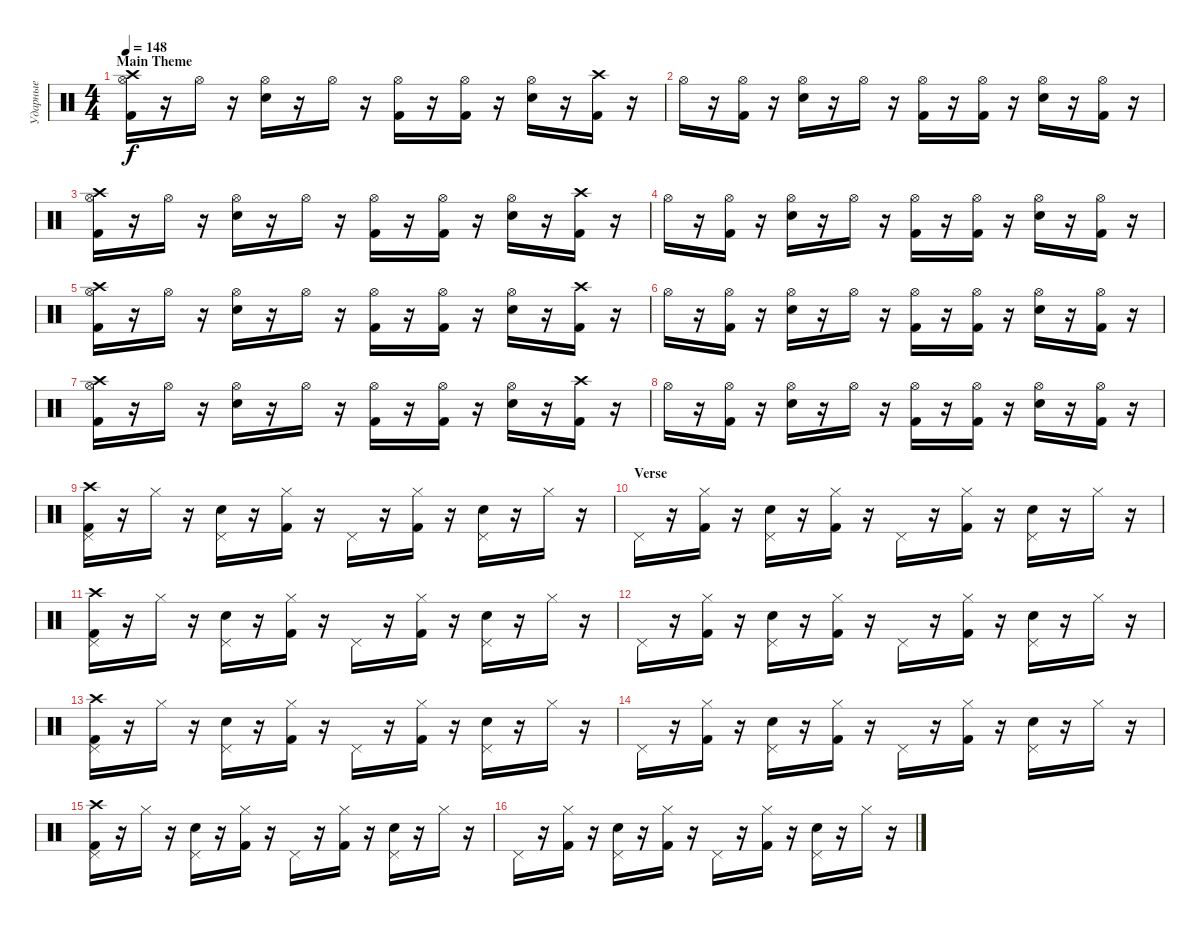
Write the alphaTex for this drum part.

\track ("Ударные" "Ударные") {instrument percussion}
\staff {score}
\articulation defaults
\ts (4 4)
\section ("" "Main Theme")
\tempo 148
\clef neutral
\ks c
("Crash high (hit)" "Hi-Hat (open)" "Kick (hit) 2").16{dy f} r.16 "Hi-Hat (open)".16 r.16 ("Hi-Hat (open)" "Electric Snare (hit)").16 r.16 "Hi-Hat (open)".16 r.16 ("Hi-Hat (open)" "Kick (hit) 2").16 r.16 ("Hi-Hat (open)" "Kick (hit) 2").16 r.16 ("Hi-Hat (open)" "Electric Snare (hit)").16 r.16 ("Crash high (hit)" "Kick (hit) 2").16 r.16 |
"Hi-Hat (open)".16 r.16 ("Hi-Hat (open)" "Kick (hit) 2").16 r.16 ("Hi-Hat (open)" "Electric Snare (hit)").16 r.16 "Hi-Hat (open)".16 r.16 ("Hi-Hat (open)" "Kick (hit) 2").16 r.16 ("Hi-Hat (open)" "Kick (hit) 2").16 r.16 ("Hi-Hat (open)" "Electric Snare (hit)").16 r.16 ("Hi-Hat (open)" "Kick (hit) 2").16 r.16 |
("Crash high (hit)" "Hi-Hat (open)" "Kick (hit) 2").16 r.16 "Hi-Hat (open)".16 r.16 ("Hi-Hat (open)" "Electric Snare (hit)").16 r.16 "Hi-Hat (open)".16 r.16 ("Hi-Hat (open)" "Kick (hit) 2").16 r.16 ("Hi-Hat (open)" "Kick (hit) 2").16 r.16 ("Hi-Hat (open)" "Electric Snare (hit)").16 r.16 ("Crash high (hit)" "Kick (hit) 2").16 r.16 |
"Hi-Hat (open)".16 r.16 ("Hi-Hat (open)" "Kick (hit) 2").16 r.16 ("Hi-Hat (open)" "Electric Snare (hit)").16 r.16 "Hi-Hat (open)".16 r.16 ("Hi-Hat (open)" "Kick (hit) 2").16 r.16 ("Hi-Hat (open)" "Kick (hit) 2").16 r.16 ("Hi-Hat (open)" "Electric Snare (hit)").16 r.16 ("Hi-Hat (open)" "Kick (hit) 2").16 r.16 |
("Crash high (hit)" "Hi-Hat (open)" "Kick (hit) 2").16 r.16 "Hi-Hat (open)".16 r.16 ("Hi-Hat (open)" "Electric Snare (hit)").16 r.16 "Hi-Hat (open)".16 r.16 ("Hi-Hat (open)" "Kick (hit) 2").16 r.16 ("Hi-Hat (open)" "Kick (hit) 2").16 r.16 ("Hi-Hat (open)" "Electric Snare (hit)").16 r.16 ("Crash high (hit)" "Kick (hit) 2").16 r.16 |
"Hi-Hat (open)".16 r.16 ("Hi-Hat (open)" "Kick (hit) 2").16 r.16 ("Hi-Hat (open)" "Electric Snare (hit)").16 r.16 "Hi-Hat (open)".16 r.16 ("Hi-Hat (open)" "Kick (hit) 2").16 r.16 ("Hi-Hat (open)" "Kick (hit) 2").16 r.16 ("Hi-Hat (open)" "Electric Snare (hit)").16 r.16 ("Hi-Hat (open)" "Kick (hit) 2").16 r.16 |
("Crash high (hit)" "Hi-Hat (open)" "Kick (hit) 2").16 r.16 "Hi-Hat (open)".16 r.16 ("Hi-Hat (open)" "Electric Snare (hit)").16 r.16 "Hi-Hat (open)".16 r.16 ("Hi-Hat (open)" "Kick (hit) 2").16 r.16 ("Hi-Hat (open)" "Kick (hit) 2").16 r.16 ("Hi-Hat (open)" "Electric Snare (hit)").16 r.16 ("Crash high (hit)" "Kick (hit) 2").16 r.16 |
"Hi-Hat (open)".16 r.16 ("Hi-Hat (open)" "Kick (hit) 2").16 r.16 ("Hi-Hat (open)" "Electric Snare (hit)").16 r.16 "Hi-Hat (open)".16 r.16 ("Hi-Hat (open)" "Kick (hit) 2").16 r.16 ("Hi-Hat (open)" "Kick (hit) 2").16 r.16 ("Hi-Hat (open)" "Electric Snare (hit)").16 r.16 ("Hi-Hat (open)" "Kick (hit) 2").16 r.16 |
("Crash high (hit)" "Pedal Hi-Hat (hit)" "Kick (hit) 2").16 r.16 "Hi-Hat (closed)".16 r.16 ("Pedal Hi-Hat (hit)" "Electric Snare (hit)").16 r.16 ("Hi-Hat (closed)" "Kick (hit) 2").16 r.16 "Pedal Hi-Hat (hit)".16 r.16 ("Hi-Hat (closed)" "Kick (hit) 2").16 r.16 ("Pedal Hi-Hat (hit)" "Electric Snare (hit)").16 r.16 "Hi-Hat (closed)".16 r.16 |
\section ("" "Verse")
"Pedal Hi-Hat (hit)".16 r.16 ("Hi-Hat (closed)" "Kick (hit) 2").16 r.16 ("Pedal Hi-Hat (hit)" "Electric Snare (hit)").16 r.16 ("Hi-Hat (closed)" "Kick (hit) 2").16 r.16 "Pedal Hi-Hat (hit)".16 r.16 ("Hi-Hat (closed)" "Kick (hit) 2").16 r.16 ("Pedal Hi-Hat (hit)" "Electric Snare (hit)").16 r.16 "Hi-Hat (closed)".16 r.16 |
("Crash high (hit)" "Pedal Hi-Hat (hit)" "Kick (hit) 2").16 r.16 "Hi-Hat (closed)".16 r.16 ("Pedal Hi-Hat (hit)" "Electric Snare (hit)").16 r.16 ("Hi-Hat (closed)" "Kick (hit) 2").16 r.16 "Pedal Hi-Hat (hit)".16 r.16 ("Hi-Hat (closed)" "Kick (hit) 2").16 r.16 ("Pedal Hi-Hat (hit)" "Electric Snare (hit)").16 r.16 "Hi-Hat (closed)".16 r.16 |
"Pedal Hi-Hat (hit)".16 r.16 ("Hi-Hat (closed)" "Kick (hit) 2").16 r.16 ("Pedal Hi-Hat (hit)" "Electric Snare (hit)").16 r.16 ("Hi-Hat (closed)" "Kick (hit) 2").16 r.16 "Pedal Hi-Hat (hit)".16 r.16 ("Hi-Hat (closed)" "Kick (hit) 2").16 r.16 ("Pedal Hi-Hat (hit)" "Electric Snare (hit)").16 r.16 "Hi-Hat (closed)".16 r.16 |
("Crash high (hit)" "Pedal Hi-Hat (hit)" "Kick (hit) 2").16 r.16 "Hi-Hat (closed)".16 r.16 ("Pedal Hi-Hat (hit)" "Electric Snare (hit)").16 r.16 ("Hi-Hat (closed)" "Kick (hit) 2").16 r.16 "Pedal Hi-Hat (hit)".16 r.16 ("Hi-Hat (closed)" "Kick (hit) 2").16 r.16 ("Pedal Hi-Hat (hit)" "Electric Snare (hit)").16 r.16 "Hi-Hat (closed)".16 r.16 |
"Pedal Hi-Hat (hit)".16 r.16 ("Hi-Hat (closed)" "Kick (hit) 2").16 r.16 ("Pedal Hi-Hat (hit)" "Electric Snare (hit)").16 r.16 ("Hi-Hat (closed)" "Kick (hit) 2").16 r.16 "Pedal Hi-Hat (hit)".16 r.16 ("Hi-Hat (closed)" "Kick (hit) 2").16 r.16 ("Pedal Hi-Hat (hit)" "Electric Snare (hit)").16 r.16 "Hi-Hat (closed)".16 r.16 |
("Crash high (hit)" "Pedal Hi-Hat (hit)" "Kick (hit) 2").16 r.16 "Hi-Hat (closed)".16 r.16 ("Pedal Hi-Hat (hit)" "Electric Snare (hit)").16 r.16 ("Hi-Hat (closed)" "Kick (hit) 2").16 r.16 "Pedal Hi-Hat (hit)".16 r.16 ("Hi-Hat (closed)" "Kick (hit) 2").16 r.16 ("Pedal Hi-Hat (hit)" "Electric Snare (hit)").16 r.16 "Hi-Hat (closed)".16 r.16 |
"Pedal Hi-Hat (hit)".16 r.16 ("Hi-Hat (closed)" "Kick (hit) 2").16 r.16 ("Pedal Hi-Hat (hit)" "Electric Snare (hit)").16 r.16 ("Hi-Hat (closed)" "Kick (hit) 2").16 r.16 "Pedal Hi-Hat (hit)".16 r.16 ("Hi-Hat (closed)" "Kick (hit) 2").16 r.16 ("Pedal Hi-Hat (hit)" "Electric Snare (hit)").16 r.16 "Hi-Hat (closed)".16 r.16
